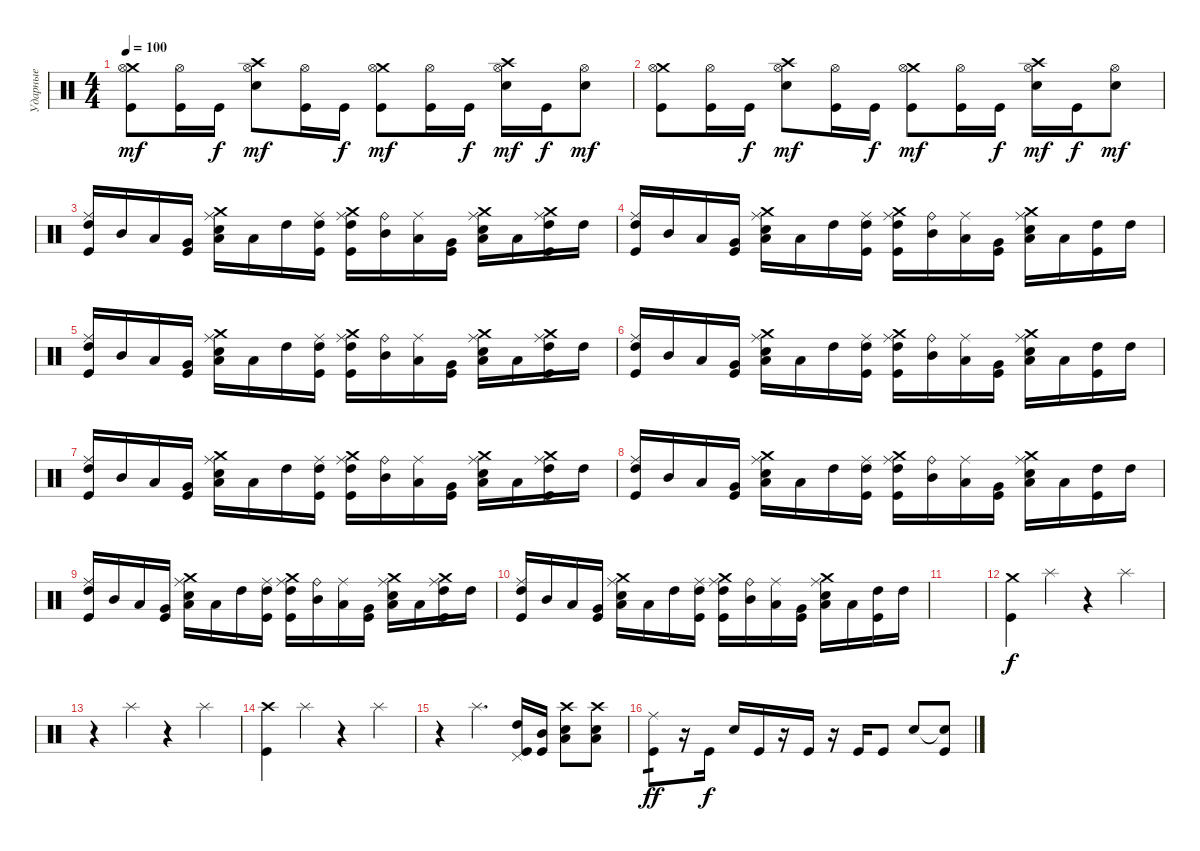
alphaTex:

\track ("Ударные" "Ударные") {instrument percussion}
\staff {score}
\articulation defaults
\ts (4 4)
\tempo 100
\clef neutral
\ks c
("Crash medium (hit)" "Hi-Hat (open)" "Kick (hit)").8{dy mf} ("Hi-Hat (open)" "Kick (hit)").16 "Kick (hit)".16{dy f} ("Crash high (hit)" "Hi-Hat (open)" "Electric Snare (hit)").8{dy mf} ("Hi-Hat (open)" "Kick (hit)").16 "Kick (hit)".16{dy f} ("Crash medium (hit)" "Hi-Hat (open)" "Kick (hit)").8{dy mf} ("Hi-Hat (open)" "Kick (hit)").16 "Kick (hit)".16{dy f} ("Crash high (hit)" "Hi-Hat (open)" "Electric Snare (hit)").16{dy mf} "Kick (hit)".16{dy f} ("Hi-Hat (open)" "Electric Snare (hit)").8{dy mf} |
("Crash medium (hit)" "Hi-Hat (open)" "Kick (hit)").8 ("Hi-Hat (open)" "Kick (hit)").16 "Kick (hit)".16{dy f} ("Crash high (hit)" "Hi-Hat (open)" "Electric Snare (hit)").8{dy mf} ("Hi-Hat (open)" "Kick (hit)").16 "Kick (hit)".16{dy f} ("Crash medium (hit)" "Hi-Hat (open)" "Kick (hit)").8{dy mf} ("Hi-Hat (open)" "Kick (hit)").16 "Kick (hit)".16{dy f} ("Crash high (hit)" "Hi-Hat (open)" "Electric Snare (hit)").16{dy mf} "Kick (hit)".16{dy f} ("Hi-Hat (open)" "Electric Snare (hit)").8{dy mf} |
("Ride (middle)" "High Tom (hit)" "Kick (hit)").16 "Mid Tom (hit)".16 "Low Tom (hit)".16 ("Very Low Tom (hit)" "Kick (hit)").16 ("Ride (middle)" "Crash medium (hit)" "Low Floor Tom (hit)" "Electric Snare (hit)").16 "Low Tom (hit)".16 "High Tom (hit)".16 ("Ride (middle)" "High Tom (hit)" "Kick (hit)").16 ("Ride (middle)" "Crash medium (hit)" "High Tom (hit)" "Kick (hit)").16 ("Mid Tom (hit)" "Ride (bell)").16 ("Ride (middle)" "Low Tom (hit)").16 ("Very Low Tom (hit)" "Kick (hit)").16 ("Ride (middle)" "Crash medium (hit)" "Low Floor Tom (hit)" "Electric Snare (hit)").16 "Low Tom (hit)".16 ("Ride (middle)" "Crash medium (hit)" "High Tom (hit)" "Kick (hit)").16 "High Tom (hit)".16 |
("Ride (middle)" "High Tom (hit)" "Kick (hit)").16 "Mid Tom (hit)".16 "Low Tom (hit)".16 ("Very Low Tom (hit)" "Kick (hit)").16 ("Ride (middle)" "Crash medium (hit)" "Low Floor Tom (hit)" "Electric Snare (hit)").16 "Low Tom (hit)".16 "High Tom (hit)".16 ("Ride (middle)" "High Tom (hit)" "Kick (hit)").16 ("Ride (middle)" "Crash medium (hit)" "High Tom (hit)" "Kick (hit)").16 ("Mid Tom (hit)" "Ride (bell)").16 ("Ride (middle)" "Low Tom (hit)").16 ("Very Low Tom (hit)" "Kick (hit)").16 ("Ride (middle)" "Crash medium (hit)" "Low Floor Tom (hit)" "Electric Snare (hit)").16 "Low Tom (hit)".16 ("High Tom (hit)" "Kick (hit)").16 "High Tom (hit)".16 |
("Ride (middle)" "High Tom (hit)" "Kick (hit)").16 "Mid Tom (hit)".16 "Low Tom (hit)".16 ("Very Low Tom (hit)" "Kick (hit)").16 ("Ride (middle)" "Crash medium (hit)" "Low Floor Tom (hit)" "Electric Snare (hit)").16 "Low Tom (hit)".16 "High Tom (hit)".16 ("Ride (middle)" "High Tom (hit)" "Kick (hit)").16 ("Ride (middle)" "Crash medium (hit)" "High Tom (hit)" "Kick (hit)").16 ("Mid Tom (hit)" "Ride (bell)").16 ("Ride (middle)" "Low Tom (hit)").16 ("Very Low Tom (hit)" "Kick (hit)").16 ("Ride (middle)" "Crash medium (hit)" "Low Floor Tom (hit)" "Electric Snare (hit)").16 "Low Tom (hit)".16 ("Ride (middle)" "Crash medium (hit)" "High Tom (hit)" "Kick (hit)").16 "High Tom (hit)".16 |
("Ride (middle)" "High Tom (hit)" "Kick (hit)").16 "Mid Tom (hit)".16 "Low Tom (hit)".16 ("Very Low Tom (hit)" "Kick (hit)").16 ("Ride (middle)" "Crash medium (hit)" "Low Floor Tom (hit)" "Electric Snare (hit)").16 "Low Tom (hit)".16 "High Tom (hit)".16 ("Ride (middle)" "High Tom (hit)" "Kick (hit)").16 ("Ride (middle)" "Crash medium (hit)" "High Tom (hit)" "Kick (hit)").16 ("Mid Tom (hit)" "Ride (bell)").16 ("Ride (middle)" "Low Tom (hit)").16 ("Very Low Tom (hit)" "Kick (hit)").16 ("Ride (middle)" "Crash medium (hit)" "Low Floor Tom (hit)" "Electric Snare (hit)").16 "Low Tom (hit)".16 ("High Tom (hit)" "Kick (hit)").16 "High Tom (hit)".16 |
("Ride (middle)" "High Tom (hit)" "Kick (hit)").16 "Mid Tom (hit)".16 "Low Tom (hit)".16 ("Very Low Tom (hit)" "Kick (hit)").16 ("Ride (middle)" "Crash medium (hit)" "Low Floor Tom (hit)" "Electric Snare (hit)").16 "Low Tom (hit)".16 "High Tom (hit)".16 ("Ride (middle)" "High Tom (hit)" "Kick (hit)").16 ("Ride (middle)" "Crash medium (hit)" "High Tom (hit)" "Kick (hit)").16 ("Mid Tom (hit)" "Ride (bell)").16 ("Ride (middle)" "Low Tom (hit)").16 ("Very Low Tom (hit)" "Kick (hit)").16 ("Ride (middle)" "Crash medium (hit)" "Low Floor Tom (hit)" "Electric Snare (hit)").16 "Low Tom (hit)".16 ("Ride (middle)" "Crash medium (hit)" "High Tom (hit)" "Kick (hit)").16 "High Tom (hit)".16 |
("Ride (middle)" "High Tom (hit)" "Kick (hit)").16 "Mid Tom (hit)".16 "Low Tom (hit)".16 ("Very Low Tom (hit)" "Kick (hit)").16 ("Ride (middle)" "Crash medium (hit)" "Low Floor Tom (hit)" "Electric Snare (hit)").16 "Low Tom (hit)".16 "High Tom (hit)".16 ("Ride (middle)" "High Tom (hit)" "Kick (hit)").16 ("Ride (middle)" "Crash medium (hit)" "High Tom (hit)" "Kick (hit)").16 ("Mid Tom (hit)" "Ride (bell)").16 ("Ride (middle)" "Low Tom (hit)").16 ("Very Low Tom (hit)" "Kick (hit)").16 ("Ride (middle)" "Crash medium (hit)" "Low Floor Tom (hit)" "Electric Snare (hit)").16 "Low Tom (hit)".16 ("High Tom (hit)" "Kick (hit)").16 "High Tom (hit)".16 |
("Ride (middle)" "High Tom (hit)" "Kick (hit)").16 "Mid Tom (hit)".16 "Low Tom (hit)".16 ("Very Low Tom (hit)" "Kick (hit)").16 ("Ride (middle)" "Crash medium (hit)" "Low Floor Tom (hit)" "Electric Snare (hit)").16 "Low Tom (hit)".16 "High Tom (hit)".16 ("Ride (middle)" "High Tom (hit)" "Kick (hit)").16 ("Ride (middle)" "Crash medium (hit)" "High Tom (hit)" "Kick (hit)").16 ("Mid Tom (hit)" "Ride (bell)").16 ("Ride (middle)" "Low Tom (hit)").16 ("Very Low Tom (hit)" "Kick (hit)").16 ("Ride (middle)" "Crash medium (hit)" "Low Floor Tom (hit)" "Electric Snare (hit)").16 "Low Tom (hit)".16 ("Ride (middle)" "Crash medium (hit)" "High Tom (hit)" "Kick (hit)").16 "High Tom (hit)".16 |
("Ride (middle)" "High Tom (hit)" "Kick (hit)").16 "Mid Tom (hit)".16 "Low Tom (hit)".16 ("Very Low Tom (hit)" "Kick (hit)").16 ("Ride (middle)" "Crash medium (hit)" "Low Floor Tom (hit)" "Electric Snare (hit)").16 "Low Tom (hit)".16 "High Tom (hit)".16 ("Ride (middle)" "High Tom (hit)" "Kick (hit)").16 ("Ride (middle)" "Crash medium (hit)" "High Tom (hit)" "Kick (hit)").16 ("Mid Tom (hit)" "Ride (bell)").16 ("Ride (middle)" "Low Tom (hit)").16 ("Very Low Tom (hit)" "Kick (hit)").16 ("Ride (middle)" "Crash medium (hit)" "Low Floor Tom (hit)" "Electric Snare (hit)").16 "Low Tom (hit)".16 ("High Tom (hit)" "Kick (hit)").16 "High Tom (hit)".16 |
|
("Crash medium (hit)" "Kick (hit)").4{dy f} "Splash (hit)".4 r.4 "Splash (hit)".4 |
r.4 "Splash (hit)".4 r.4 "Splash (hit)".4 |
("Crash high (hit)" "Kick (hit)").4 "Splash (hit)".4 r.4 "Splash (hit)".4 |
r.4 "Splash (hit)".4{d} ("Pedal Hi-Hat (hit)" "High Tom (hit)" "Kick (hit)").16 ("Mid Tom (hit)" "Kick (hit)").16 ("Crash high (hit)" "Low Floor Tom (hit)" "Electric Snare (hit)").8 ("Crash high (hit)" "Low Floor Tom (hit)" "Electric Snare (hit)").8 |
("Ride (middle)" "Kick (hit)").8{tp 1 dy ff} r.16 "Kick (hit)".16{dy f} "Electric Snare (hit)".16 "Kick (hit)".16 r.16 "Kick (hit)".16 r.16 "Kick (hit)".16 "Kick (hit)".8 "Electric Snare (hit)".8 ("Snare (hit)"{t} "Kick (hit)").8
